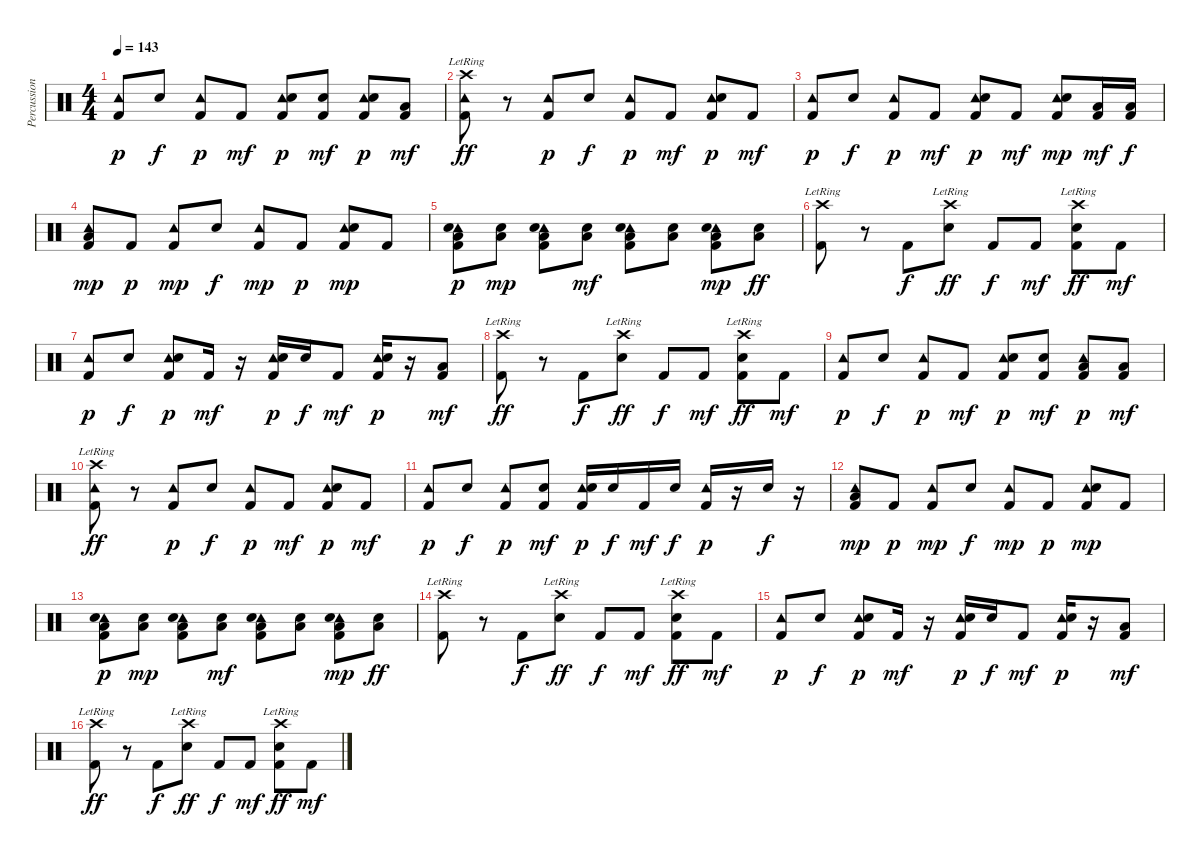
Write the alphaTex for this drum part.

\track ("Percussion" "Percussion") {instrument percussion}
\staff {score}
\articulation defaults
\ts (4 4)
\tempo 143
\clef neutral
\ks c
("Tambourine (hit)" "Kick (hit) 2").8{dy p} "Electric Snare (hit)".8{dy f} ("Tambourine (hit)" "Kick (hit) 2").8{dy p} "Kick (hit) 2".8{dy mf} ("Tambourine (hit)" "Electric Snare (hit)" "Kick (hit) 2").8{dy p} ("Electric Snare (hit)" "Kick (hit) 2").8{dy mf} ("Tambourine (hit)" "Electric Snare (hit)" "Kick (hit) 2").8{dy p} ("Low Floor Tom (hit)" "Kick (hit) 2").8{dy mf} |
("Tambourine (hit)" "Crash high (hit)"{lr} "Kick (hit) 2").8{dy ff} r.8 ("Tambourine (hit)" "Kick (hit) 2").8{dy p} "Electric Snare (hit)".8{dy f} ("Tambourine (hit)" "Kick (hit) 2").8{dy p} "Kick (hit) 2".8{dy mf} ("Tambourine (hit)" "Electric Snare (hit)" "Kick (hit) 2").8{dy p} "Kick (hit) 2".8{dy mf} |
("Tambourine (hit)" "Kick (hit) 2").8{dy p} "Electric Snare (hit)".8{dy f} ("Tambourine (hit)" "Kick (hit) 2").8{dy p} "Kick (hit) 2".8{dy mf} ("Tambourine (hit)" "Electric Snare (hit)" "Kick (hit) 2").8{dy p} "Kick (hit) 2".8{dy mf} ("Tambourine (hit)" "Electric Snare (hit)" "Kick (hit) 2").8{dy mp} ("Low Floor Tom (hit)" "Kick (hit) 2").16{dy mf} ("Low Floor Tom (hit)" "Kick (hit) 2").16{dy f} |
("Tambourine (hit)" "Low Floor Tom (hit)" "Kick (hit) 2").8{dy mp} "Kick (hit) 2".8{dy p} ("Tambourine (hit)" "Kick (hit) 2").8{dy mp} "Electric Snare (hit)".8{dy f} ("Tambourine (hit)" "Kick (hit) 2").8{dy mp} "Kick (hit) 2".8{dy p} ("Tambourine (hit)" "Electric Snare (hit)" "Kick (hit) 2").8{dy mp} "Kick (hit) 2".8 |
("Tambourine (hit)" "Electric Snare (hit)" "Low Floor Tom (hit)" "Kick (hit) 2").8{dy p} ("Electric Snare (hit)" "Low Floor Tom (hit)").8{dy mp} ("Tambourine (hit)" "Electric Snare (hit)" "Low Floor Tom (hit)" "Kick (hit) 2").8 ("Electric Snare (hit)" "Low Floor Tom (hit)").8{dy mf} ("Tambourine (hit)" "Electric Snare (hit)" "Low Floor Tom (hit)" "Kick (hit) 2").8 ("Electric Snare (hit)" "Low Floor Tom (hit)").8 ("Tambourine (hit)" "Electric Snare (hit)" "Low Floor Tom (hit)" "Kick (hit) 2").8{dy mp} ("Electric Snare (hit)" "Low Floor Tom (hit)").8{dy ff} |
("Crash high (hit)"{lr} "Kick (hit) 2").8 r.8 "Kick (hit) 2".8{dy f} ("Crash high (hit)"{lr} "Electric Snare (hit)").8{dy ff} "Kick (hit) 2".8{dy f} "Kick (hit) 2".8{dy mf} ("Crash high (hit)"{lr} "Electric Snare (hit)" "Kick (hit) 2").8{dy ff} "Kick (hit) 2".8{dy mf} |
("Tambourine (hit)" "Kick (hit) 2").8{dy p} "Electric Snare (hit)".8{dy f} ("Tambourine (hit)" "Electric Snare (hit)" "Kick (hit) 2").8{dy p} "Kick (hit) 2".16{dy mf} r.16 ("Tambourine (hit)" "Electric Snare (hit)" "Kick (hit) 2").16{dy p} "Electric Snare (hit)".16{dy f} "Kick (hit) 2".8{dy mf} ("Tambourine (hit)" "Electric Snare (hit)" "Kick (hit) 2").16{dy p} r.16 ("Low Floor Tom (hit)" "Kick (hit) 2").8{dy mf} |
("Crash high (hit)"{lr} "Kick (hit) 2").8{dy ff} r.8 "Kick (hit) 2".8{dy f} ("Crash high (hit)"{lr} "Electric Snare (hit)").8{dy ff} "Kick (hit) 2".8{dy f} "Kick (hit) 2".8{dy mf} ("Crash high (hit)"{lr} "Electric Snare (hit)" "Kick (hit) 2").8{dy ff} "Kick (hit) 2".8{dy mf} |
("Tambourine (hit)" "Kick (hit) 2").8{dy p} "Electric Snare (hit)".8{dy f} ("Tambourine (hit)" "Kick (hit) 2").8{dy p} "Kick (hit) 2".8{dy mf} ("Tambourine (hit)" "Electric Snare (hit)" "Kick (hit) 2").8{dy p} ("Electric Snare (hit)" "Kick (hit) 2").8{dy mf} ("Tambourine (hit)" "Low Floor Tom (hit)" "Kick (hit) 2").8{dy p} ("Low Floor Tom (hit)" "Kick (hit) 2").8{dy mf} |
("Tambourine (hit)" "Crash high (hit)"{lr} "Kick (hit) 2").8{dy ff} r.8 ("Tambourine (hit)" "Kick (hit) 2").8{dy p} "Electric Snare (hit)".8{dy f} ("Tambourine (hit)" "Kick (hit) 2").8{dy p} "Kick (hit) 2".8{dy mf} ("Tambourine (hit)" "Electric Snare (hit)" "Kick (hit) 2").8{dy p} "Kick (hit) 2".8{dy mf} |
("Tambourine (hit)" "Kick (hit) 2").8{dy p} "Electric Snare (hit)".8{dy f} ("Tambourine (hit)" "Kick (hit) 2").8{dy p} ("Electric Snare (hit)" "Kick (hit) 2").8{dy mf} ("Tambourine (hit)" "Electric Snare (hit)" "Kick (hit) 2").16{dy p} "Electric Snare (hit)".16{dy f} "Kick (hit) 2".16{dy mf} "Electric Snare (hit)".16{dy f} ("Tambourine (hit)" "Kick (hit) 2").16{dy p} r.16 "Electric Snare (hit)".16{dy f} r.16 |
("Tambourine (hit)" "Low Floor Tom (hit)" "Kick (hit) 2").8{dy mp} "Kick (hit) 2".8{dy p} ("Tambourine (hit)" "Kick (hit) 2").8{dy mp} "Electric Snare (hit)".8{dy f} ("Tambourine (hit)" "Kick (hit) 2").8{dy mp} "Kick (hit) 2".8{dy p} ("Tambourine (hit)" "Electric Snare (hit)" "Kick (hit) 2").8{dy mp} "Kick (hit) 2".8 |
("Tambourine (hit)" "Electric Snare (hit)" "Low Floor Tom (hit)" "Kick (hit) 2").8{dy p} ("Electric Snare (hit)" "Low Floor Tom (hit)").8{dy mp} ("Tambourine (hit)" "Electric Snare (hit)" "Low Floor Tom (hit)" "Kick (hit) 2").8 ("Electric Snare (hit)" "Low Floor Tom (hit)").8{dy mf} ("Tambourine (hit)" "Electric Snare (hit)" "Low Floor Tom (hit)" "Kick (hit) 2").8 ("Electric Snare (hit)" "Low Floor Tom (hit)").8 ("Tambourine (hit)" "Electric Snare (hit)" "Low Floor Tom (hit)" "Kick (hit) 2").8{dy mp} ("Electric Snare (hit)" "Low Floor Tom (hit)").8{dy ff} |
("Crash high (hit)"{lr} "Kick (hit) 2").8 r.8 "Kick (hit) 2".8{dy f} ("Crash high (hit)"{lr} "Electric Snare (hit)").8{dy ff} "Kick (hit) 2".8{dy f} "Kick (hit) 2".8{dy mf} ("Crash high (hit)"{lr} "Electric Snare (hit)" "Kick (hit) 2").8{dy ff} "Kick (hit) 2".8{dy mf} |
("Tambourine (hit)" "Kick (hit) 2").8{dy p} "Electric Snare (hit)".8{dy f} ("Tambourine (hit)" "Electric Snare (hit)" "Kick (hit) 2").8{dy p} "Kick (hit) 2".16{dy mf} r.16 ("Tambourine (hit)" "Electric Snare (hit)" "Kick (hit) 2").16{dy p} "Electric Snare (hit)".16{dy f} "Kick (hit) 2".8{dy mf} ("Tambourine (hit)" "Electric Snare (hit)" "Kick (hit) 2").16{dy p} r.16 ("Low Floor Tom (hit)" "Kick (hit) 2").8{dy mf} |
("Crash high (hit)"{lr} "Kick (hit) 2").8{dy ff} r.8 "Kick (hit) 2".8{dy f} ("Crash high (hit)"{lr} "Electric Snare (hit)").8{dy ff} "Kick (hit) 2".8{dy f} "Kick (hit) 2".8{dy mf} ("Crash high (hit)"{lr} "Electric Snare (hit)" "Kick (hit) 2").8{dy ff} "Kick (hit) 2".8{dy mf}
